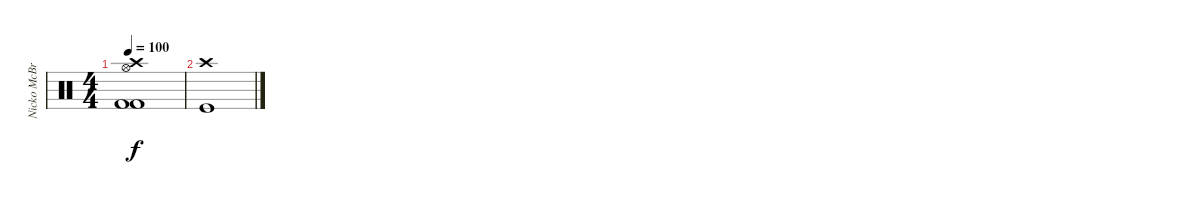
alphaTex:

\track ("Nicko McBrain" "Nicko McBr") {instrument percussion}
\staff {score}
\articulation defaults
\ts (4 4)
\tempo 100
\clef neutral
\ks c
("Crash high (hit)" "Hi-Hat (open)" "Kick (hit) 2" "Kick (hit) 2").1{dy f} |
("Crash high (hit)" "Kick (hit)").1
